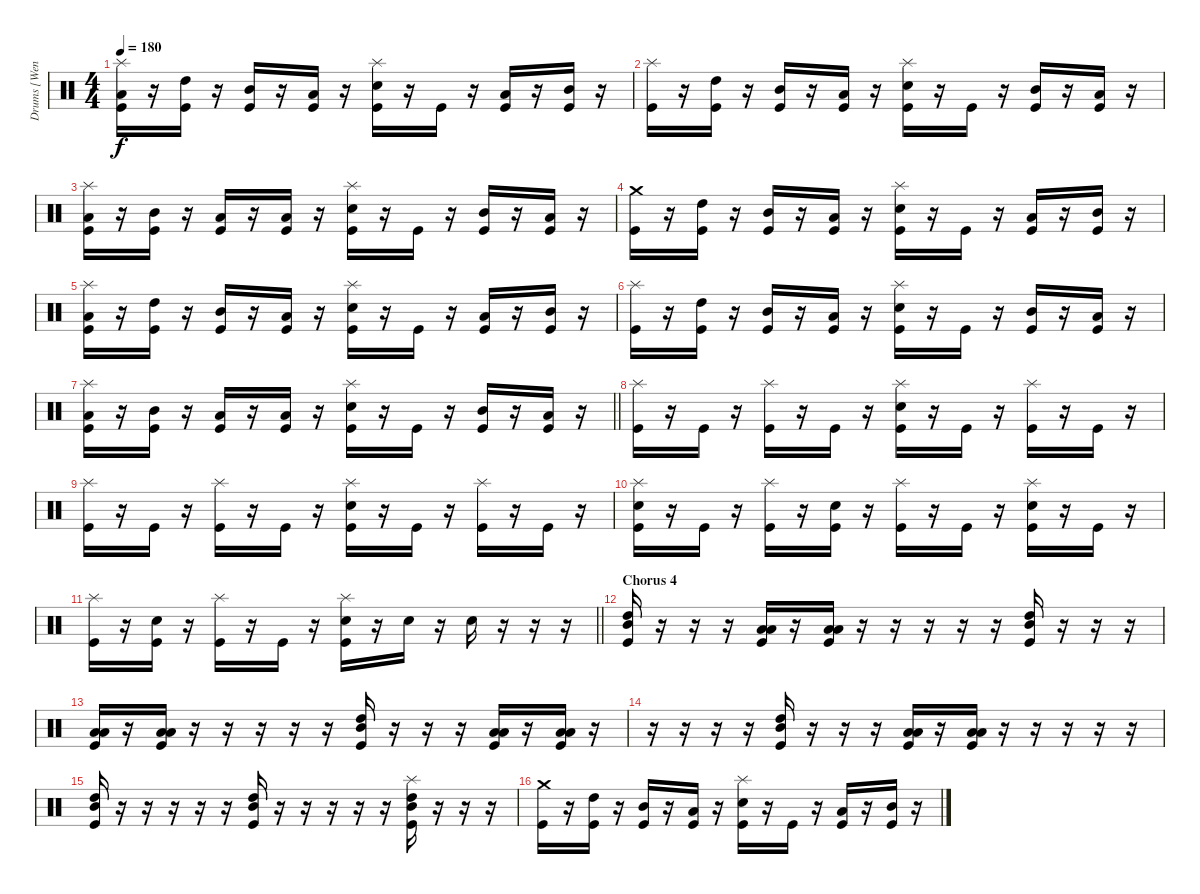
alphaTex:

\track ("Drums [Wengren]" "Drums [Wen") {instrument percussion}
\staff {score}
\articulation defaults
\ts (4 4)
\tempo 180
\clef neutral
\ks c
("Splash (hit)" "Low Floor Tom (hit)" "Kick (hit)").16{dy f} r.16 ("High Tom (hit)" "Kick (hit)").16 r.16 ("Mid Tom (hit)" "Kick (hit)").16 r.16 ("Low Tom (hit)" "Kick (hit)").16 r.16 ("Splash (hit)" "Electric Snare (hit)" "Kick (hit)").16 r.16 "Kick (hit)".16 r.16 ("Low Tom (hit)" "Kick (hit)").16 r.16 ("Mid Tom (hit)" "Kick (hit)").16 r.16 |
("Splash (hit)" "Kick (hit)").16 r.16 ("High Tom (hit)" "Kick (hit)").16 r.16 ("Mid Tom (hit)" "Kick (hit)").16 r.16 ("Low Tom (hit)" "Kick (hit)").16 r.16 ("Splash (hit)" "Electric Snare (hit)" "Kick (hit)").16 r.16 "Kick (hit)".16 r.16 ("Mid Tom (hit)" "Kick (hit)").16 r.16 ("Low Tom (hit)" "Kick (hit)").16 r.16 |
("Splash (hit)" "Low Floor Tom (hit)" "Kick (hit)").16 r.16 ("Mid Tom (hit)" "Kick (hit)").16 r.16 ("Low Tom (hit)" "Kick (hit)").16 r.16 ("Low Floor Tom (hit)" "Kick (hit)").16 r.16 ("Splash (hit)" "Electric Snare (hit)" "Kick (hit)").16 r.16 "Kick (hit)".16 r.16 ("Mid Tom (hit)" "Kick (hit)").16 r.16 ("Low Floor Tom (hit)" "Kick (hit)").16 r.16 |
("Crash medium (hit)" "Kick (hit)").16 r.16 ("High Tom (hit)" "Kick (hit)").16 r.16 ("Mid Tom (hit)" "Kick (hit)").16 r.16 ("Low Tom (hit)" "Kick (hit)").16 r.16 ("Splash (hit)" "Electric Snare (hit)" "Kick (hit)").16 r.16 "Kick (hit)".16 r.16 ("Low Tom (hit)" "Kick (hit)").16 r.16 ("Mid Tom (hit)" "Kick (hit)").16 r.16 |
("Splash (hit)" "Low Floor Tom (hit)" "Kick (hit)").16 r.16 ("High Tom (hit)" "Kick (hit)").16 r.16 ("Mid Tom (hit)" "Kick (hit)").16 r.16 ("Low Tom (hit)" "Kick (hit)").16 r.16 ("Splash (hit)" "Electric Snare (hit)" "Kick (hit)").16 r.16 "Kick (hit)".16 r.16 ("Low Tom (hit)" "Kick (hit)").16 r.16 ("Mid Tom (hit)" "Kick (hit)").16 r.16 |
("Splash (hit)" "Kick (hit)").16 r.16 ("High Tom (hit)" "Kick (hit)").16 r.16 ("Mid Tom (hit)" "Kick (hit)").16 r.16 ("Low Tom (hit)" "Kick (hit)").16 r.16 ("Splash (hit)" "Electric Snare (hit)" "Kick (hit)").16 r.16 "Kick (hit)".16 r.16 ("Mid Tom (hit)" "Kick (hit)").16 r.16 ("Low Tom (hit)" "Kick (hit)").16 r.16 |
\barLineRight lightlight
("Splash (hit)" "Low Floor Tom (hit)" "Kick (hit)").16 r.16 ("Mid Tom (hit)" "Kick (hit)").16 r.16 ("Low Tom (hit)" "Kick (hit)").16 r.16 ("Low Floor Tom (hit)" "Kick (hit)").16 r.16 ("Splash (hit)" "Electric Snare (hit)" "Kick (hit)").16 r.16 "Kick (hit)".16 r.16 ("Mid Tom (hit)" "Kick (hit)").16 r.16 ("Low Floor Tom (hit)" "Kick (hit)").16 r.16 |
("Splash (hit)" "Kick (hit)").16 r.16 "Kick (hit)".16 r.16 ("Splash (hit)" "Kick (hit)").16 r.16 "Kick (hit)".16 r.16 ("Splash (hit)" "Electric Snare (hit)" "Kick (hit)").16 r.16 "Kick (hit)".16 r.16 ("Splash (hit)" "Kick (hit)").16 r.16 "Kick (hit)".16 r.16 |
("Splash (hit)" "Kick (hit)").16 r.16 "Kick (hit)".16 r.16 ("Splash (hit)" "Kick (hit)").16 r.16 "Kick (hit)".16 r.16 ("Splash (hit)" "Electric Snare (hit)" "Kick (hit)").16 r.16 "Kick (hit)".16 r.16 ("Splash (hit)" "Kick (hit)").16 r.16 "Kick (hit)".16 r.16 |
("Splash (hit)" "Electric Snare (hit)" "Kick (hit)").16 r.16 "Kick (hit)".16 r.16 ("Splash (hit)" "Kick (hit)").16 r.16 ("Electric Snare (hit)" "Kick (hit)").16 r.16 ("Splash (hit)" "Kick (hit)").16 r.16 "Kick (hit)".16 r.16 ("Splash (hit)" "Electric Snare (hit)" "Kick (hit)").16 r.16 "Kick (hit)".16 r.16 |
\barLineRight lightlight
("Splash (hit)" "Kick (hit)").16 r.16 ("Electric Snare (hit)" "Kick (hit)").16 r.16 ("Splash (hit)" "Kick (hit)").16 r.16 "Kick (hit)".16 r.16 ("Splash (hit)" "Electric Snare (hit)" "Kick (hit)").16 r.16 "Electric Snare (hit)".16 r.16 "Electric Snare (hit)".16 r.16 r.16 r.16 |
\section ("" "Chorus 4")
("High Tom (hit)" "Mid Tom (hit)" "Kick (hit)").16 r.16 r.16 r.16 ("Low Tom (hit)" "Low Floor Tom (hit)" "Kick (hit)").16 r.16 ("Low Tom (hit)" "Low Floor Tom (hit)" "Kick (hit)").16 r.16 r.16 r.16 r.16 r.16 ("High Tom (hit)" "Mid Tom (hit)" "Kick (hit)").16 r.16 r.16 r.16 |
("Low Tom (hit)" "Low Floor Tom (hit)" "Kick (hit)").16 r.16 ("Low Tom (hit)" "Low Floor Tom (hit)" "Kick (hit)").16 r.16 r.16 r.16 r.16 r.16 ("High Tom (hit)" "Mid Tom (hit)" "Kick (hit)").16 r.16 r.16 r.16 ("Low Tom (hit)" "Low Floor Tom (hit)" "Kick (hit)").16 r.16 ("Low Tom (hit)" "Low Floor Tom (hit)" "Kick (hit)").16 r.16 |
r.16 r.16 r.16 r.16 ("High Tom (hit)" "Mid Tom (hit)" "Kick (hit)").16 r.16 r.16 r.16 ("Low Tom (hit)" "Low Floor Tom (hit)" "Kick (hit)").16 r.16 ("Low Tom (hit)" "Low Floor Tom (hit)" "Kick (hit)").16 r.16 r.16 r.16 r.16 r.16 |
("High Tom (hit)" "Mid Tom (hit)" "Kick (hit)").16 r.16 r.16 r.16 r.16 r.16 ("High Tom (hit)" "Mid Tom (hit)" "Kick (hit)").16 r.16 r.16 r.16 r.16 r.16 ("Splash (hit)" "High Tom (hit)" "Mid Tom (hit)" "Kick (hit)").16 r.16 r.16 r.16 |
("Crash medium (hit)" "Kick (hit)").16 r.16 ("High Tom (hit)" "Kick (hit)").16 r.16 ("Mid Tom (hit)" "Kick (hit)").16 r.16 ("Low Tom (hit)" "Kick (hit)").16 r.16 ("Splash (hit)" "Electric Snare (hit)" "Kick (hit)").16 r.16 "Kick (hit)".16 r.16 ("Low Tom (hit)" "Kick (hit)").16 r.16 ("Mid Tom (hit)" "Kick (hit)").16 r.16
